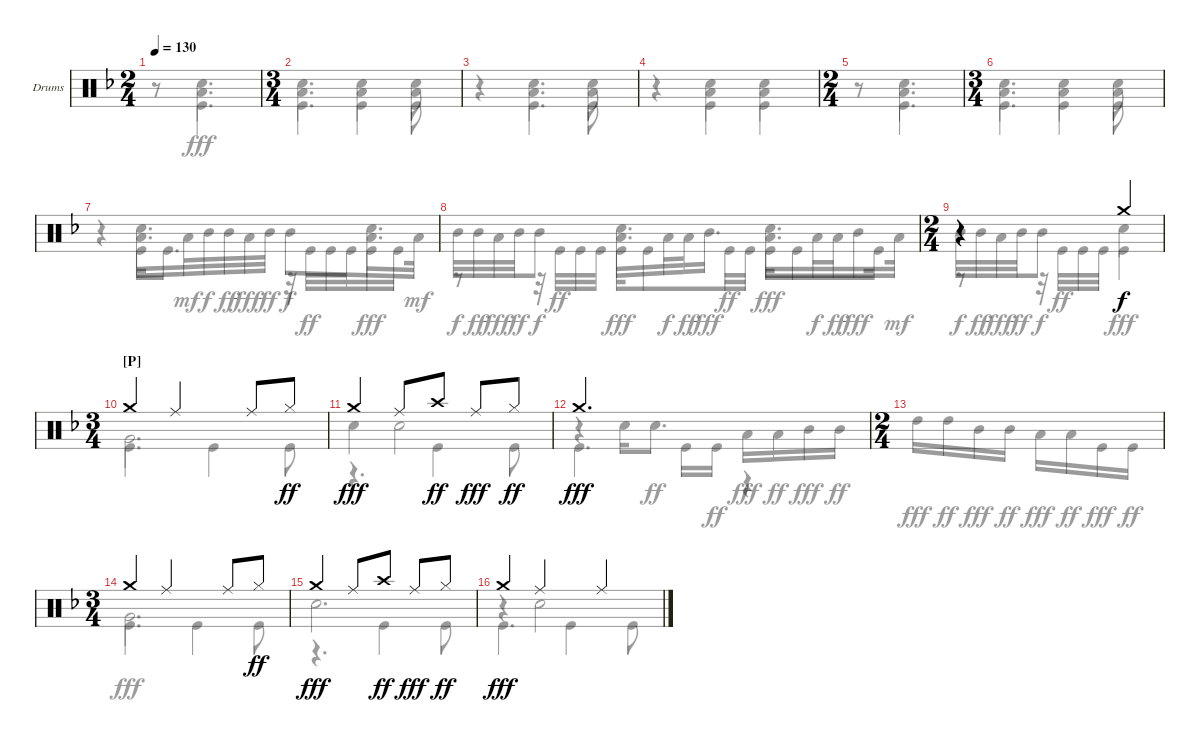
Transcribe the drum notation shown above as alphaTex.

\defaultSystemsLayout 4
\bracketExtendMode groupsimilarinstruments
\firstSystemTrackNameOrientation horizontal
\otherSystemsTrackNameOrientation horizontal
\track ("Drumkit" "Drums") {instrument percussion}
\staff {score}
\articulation defaults
\voice
\ts (2 4)
\tempo 130
\clef neutral
\ks f
|
\ts (3 4)
|
|
|
\ts (2 4)
|
\ts (3 4)
|
|
|
\ts (2 4)
r.4 "Crash medium (hit)".4 |
\ts (3 4)
\section ("P" "")
"Crash medium (hit)".4 "Ride (middle)".4 "Ride (middle)".8 "Hi-Hat (closed)".8{dy ff} |
"Crash medium (hit)".4{dy fff} "Ride (middle)".8 "Crash high (hit)".8{dy ff} "Ride (middle)".8{dy fff} "Hi-Hat (closed)".8{dy ff} |
"Crash medium (hit)".2{d dy fff} |
\ts (2 4)
|
\ts (3 4)
"Crash medium (hit)".4 "Ride (middle)".4 "Ride (middle)".8 "Hi-Hat (closed)".8{dy ff} |
"Crash medium (hit)".4{dy fff} "Ride (middle)".8 "Crash high (hit)".8{dy ff} "Ride (middle)".8{dy fff} "Hi-Hat (closed)".8{dy ff} |
"Crash medium (hit)".4{dy fff} "Ride (middle)".4 "Ride (middle)".4
\voice
\clef neutral
\ottava regular
\simile none
\ks f
r.8{dy fff} ("Snare (hit) 2" "Low Tom (hit)").4{d} |
("Snare (hit) 2" "Low Tom (hit)").4{d} ("Snare (hit) 2" "Low Tom (hit)").4 ("Snare (hit) 2" "Low Tom (hit)").8 |
r.4 ("Snare (hit) 2" "Low Tom (hit)").4{d} ("Snare (hit) 2" "Low Tom (hit)").8 |
r.4 ("Snare (hit) 2" "Low Tom (hit)").4 ("Snare (hit) 2" "Low Tom (hit)").4 |
r.8 ("Snare (hit) 2" "Low Tom (hit)").4{d} |
("Snare (hit) 2" "Low Tom (hit)").4{d} ("Snare (hit) 2" "Low Tom (hit)").4 ("Snare (hit) 2" "Low Tom (hit)").8 |
r.4 ("Snare (hit) 2" "Low Tom (hit)").16{d} "Low Tom (hit)".32{dy mf} "Mid Tom (hit)".32{dy f} "Mid Tom (hit)".32{dy ff} "Low Tom (hit)".32{dy fff} "Mid Tom (hit)".32{dy ff} "Mid Tom (hit)".8{dy f} ("Low Tom (hit)" "Snare (hit) 2").16{d} "Low Tom (hit)".32{dy mf} |
"Mid Tom (hit)".32{dy f} "Mid Tom (hit)".32{dy ff} "Low Tom (hit)".32{dy fff} "Mid Tom (hit)".32{dy ff} "Mid Tom (hit)".8{dy f} ("Low Tom (hit)" "Snare (hit) 2").16{d dy fff} "Low Tom (hit)".32{dy f} "Low Tom (hit)".32{dy ff} "Mid Tom (hit)".16{d dy fff} ("Low Tom (hit)" "Snare (hit) 2").16{d} "Low Tom (hit)".32{dy f} "Low Tom (hit)".32{dy ff} "Mid Tom (hit)".16{dy fff} "Low Tom (hit)".32{dy mf} |
"Mid Tom (hit)".32{dy f} "Mid Tom (hit)".32{dy ff} "Low Tom (hit)".32{dy fff} "Mid Tom (hit)".32{dy ff} "Mid Tom (hit)".8{dy f} "Snare (hit) 2".4{dy fff} |
"Very Low Tom (hit)".2{d} |
"Snare (hit) 2".4 "Snare (hit) 2".2 |
r.4 "Snare (hit) 2".16 "Snare (hit) 2".8{d dy ff} "Low Tom (hit)".16{dy fff} "Low Tom (hit)".16{dy ff} "Mid Tom (hit)".16{dy fff} "Mid Tom (hit)".16{dy ff} |
"High Tom (hit)".16{dy fff} "High Tom (hit)".16{dy ff} "Mid Tom (hit)".16{dy fff} "Mid Tom (hit)".16{dy ff} "Low Tom (hit)".16{dy fff} "Low Tom (hit)".16{dy ff} "Kick (hit)".16{dy fff} "Kick (hit)".16{dy ff} |
"Very Low Tom (hit)".2{d dy fff} |
"Snare (hit) 2".2{d} |
r.4 "Snare (hit) 2".2
\voice
\clef neutral
\ottava regular
\simile none
\ks f
r.8{dy fff} "Kick (hit)".4{d} |
"Kick (hit)".4{d} "Kick (hit)".4 "Kick (hit)".8 |
r.4 "Kick (hit)".4{d} "Kick (hit)".8 |
r.4 "Kick (hit)".4 "Kick (hit)".4 |
r.8 "Kick (hit)".4{d} |
"Kick (hit)".4{d} "Kick (hit)".4 "Kick (hit)".8 |
r.4 "Kick (hit)".16 "Kick (hit)".8{d} r.32 "Kick (hit)".32{dy ff} "Kick (hit)".32 "Kick (hit)".32 "Kick (hit)".16{dy fff} "Kick (hit)".16 |
r.8 r.32 "Kick (hit)".32{dy ff} "Kick (hit)".32 "Kick (hit)".32 "Kick (hit)".16{dy fff} "Kick (hit)".8 "Kick (hit)".32{dy ff} "Kick (hit)".32 "Kick (hit)".16{dy fff} "Kick (hit)".8 "Kick (hit)".16 |
r.8 r.32 "Kick (hit)".32{dy ff} "Kick (hit)".32 "Kick (hit)".32 "Kick (hit)".4{dy fff} |
"Kick (hit)".4{d} "Kick (hit)".4 "Kick (hit)".8 |
r.4{d} "Kick (hit)".4 "Kick (hit)".8 |
"Kick (hit)".4{d} "Kick (hit)".16 "Kick (hit)".16{dy ff} r.4 |
|
"Kick (hit)".4{d dy fff} "Kick (hit)".4 "Kick (hit)".8 |
r.4{d} "Kick (hit)".4 "Kick (hit)".8 |
"Kick (hit)".4{d} "Kick (hit)".4 "Kick (hit)".8
